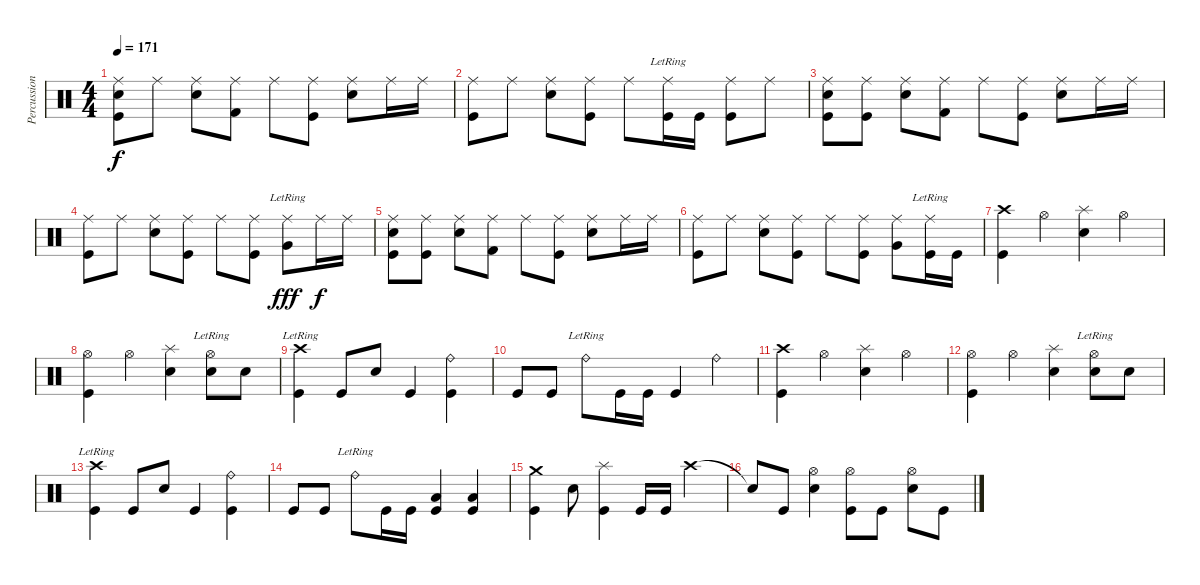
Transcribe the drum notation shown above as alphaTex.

\track ("Percussions" "Percussion") {instrument percussion}
\staff {score}
\articulation defaults
\ts (4 4)
\tempo 171
\clef neutral
\ks c
("Ride (middle)" "Snare (hit) 2" "Kick (hit)").8{dy f} "Ride (middle)".8 ("Ride (middle)" "Snare (hit) 2").8 ("Ride (middle)" "Kick (hit) 2").8 "Ride (middle)".8 ("Ride (middle)" "Kick (hit)").8 ("Ride (middle)" "Snare (hit) 2").8 "Ride (middle)".16 "Ride (middle)".16 |
("Ride (middle)" "Kick (hit)").8 "Ride (middle)".8 ("Ride (middle)" "Snare (hit) 2").8 ("Ride (middle)" "Kick (hit)").8 "Ride (middle)".8 ("Ride (middle)"{lr} "Kick (hit)").16 "Kick (hit)".16 ("Ride (middle)" "Kick (hit)").8 "Ride (middle)".8 |
("Ride (middle)" "Snare (hit) 2" "Kick (hit)").8 ("Ride (middle)" "Kick (hit)").8 ("Ride (middle)" "Snare (hit) 2").8 ("Ride (middle)" "Kick (hit) 2").8 "Ride (middle)".8 ("Ride (middle)" "Kick (hit)").8 ("Ride (middle)" "Snare (hit) 2").8 "Ride (middle)".16 "Ride (middle)".16 |
("Ride (middle)" "Kick (hit)").8 "Ride (middle)".8 ("Ride (middle)" "Snare (hit) 2").8 ("Ride (middle)" "Kick (hit)").8 "Ride (middle)".8 ("Ride (middle)" "Kick (hit)").8 ("Ride (middle)" "Very Low Tom (hit)"{lr}).8{dy fff} "Ride (middle)".16{dy f} "Ride (middle)".16 |
("Ride (middle)" "Snare (hit) 2" "Kick (hit)").8 ("Ride (middle)" "Kick (hit)").8 ("Ride (middle)" "Snare (hit) 2").8 ("Ride (middle)" "Kick (hit) 2").8 "Ride (middle)".8 ("Ride (middle)" "Kick (hit)").8 ("Ride (middle)" "Snare (hit) 2").8 "Ride (middle)".16 "Ride (middle)".16 |
("Ride (middle)" "Kick (hit)").8 "Ride (middle)".8 ("Ride (middle)" "Snare (hit) 2").8 ("Ride (middle)" "Kick (hit)").8 "Ride (middle)".8 ("Ride (middle)" "Kick (hit)").8 ("Ride (middle)" "Very Low Tom (hit)").8 ("Ride (middle)"{lr} "Kick (hit)").16 "Kick (hit)".16 |
("Crash high (hit)" "Kick (hit)").4 "Hi-Hat (open)".4 ("Splash (hit)" "Snare (hit) 2").4 "Hi-Hat (open)".4 |
("Hi-Hat (open)" "Kick (hit)").4 "Hi-Hat (open)".4 ("Splash (hit)" "Snare (hit) 2").4 ("Hi-Hat (open)"{lr} "Snare (hit) 2").8 "Snare (hit) 2".8 |
("Crash high (hit)"{lr} "Kick (hit)").4 "Kick (hit)".8 "Snare (hit) 2".8 "Kick (hit)".4 ("Ride (bell)" "Kick (hit)").4 |
"Kick (hit)".8 "Kick (hit)".8 "Ride (bell)"{lr}.8 "Kick (hit)".16 "Kick (hit)".16 "Kick (hit)".4 "Ride (bell)".4 |
("Crash high (hit)" "Kick (hit)").4 "Hi-Hat (open)".4 ("Splash (hit)" "Snare (hit) 2").4 "Hi-Hat (open)".4 |
("Hi-Hat (open)" "Kick (hit)").4 "Hi-Hat (open)".4 ("Splash (hit)" "Snare (hit) 2").4 ("Hi-Hat (open)"{lr} "Snare (hit) 2").8 "Snare (hit) 2".8 |
("Crash high (hit)"{lr} "Kick (hit)").4 "Kick (hit)".8 "Snare (hit) 2".8 "Kick (hit)".4 ("Ride (bell)" "Kick (hit)").4 |
"Kick (hit)".8 "Kick (hit)".8 "Ride (bell)"{lr}.8 "Kick (hit)".16 "Kick (hit)".16 ("Low Floor Tom (hit)" "Kick (hit)").4 ("Low Floor Tom (hit)" "Kick (hit)").4 |
("Crash medium (hit)" "Kick (hit)").4 "Snare (hit) 2".8 ("Splash (hit)" "Kick (hit)").4 "Kick (hit)".16 "Kick (hit)".16 "Crash high (hit)".4 |
"Snare (hit)"{t}.8 "Kick (hit)".8 ("Hi-Hat (open)" "Snare (hit) 2").4 ("Hi-Hat (open)" "Kick (hit)").8 "Kick (hit)".8 ("Hi-Hat (open)" "Snare (hit) 2").8 "Kick (hit)".8
